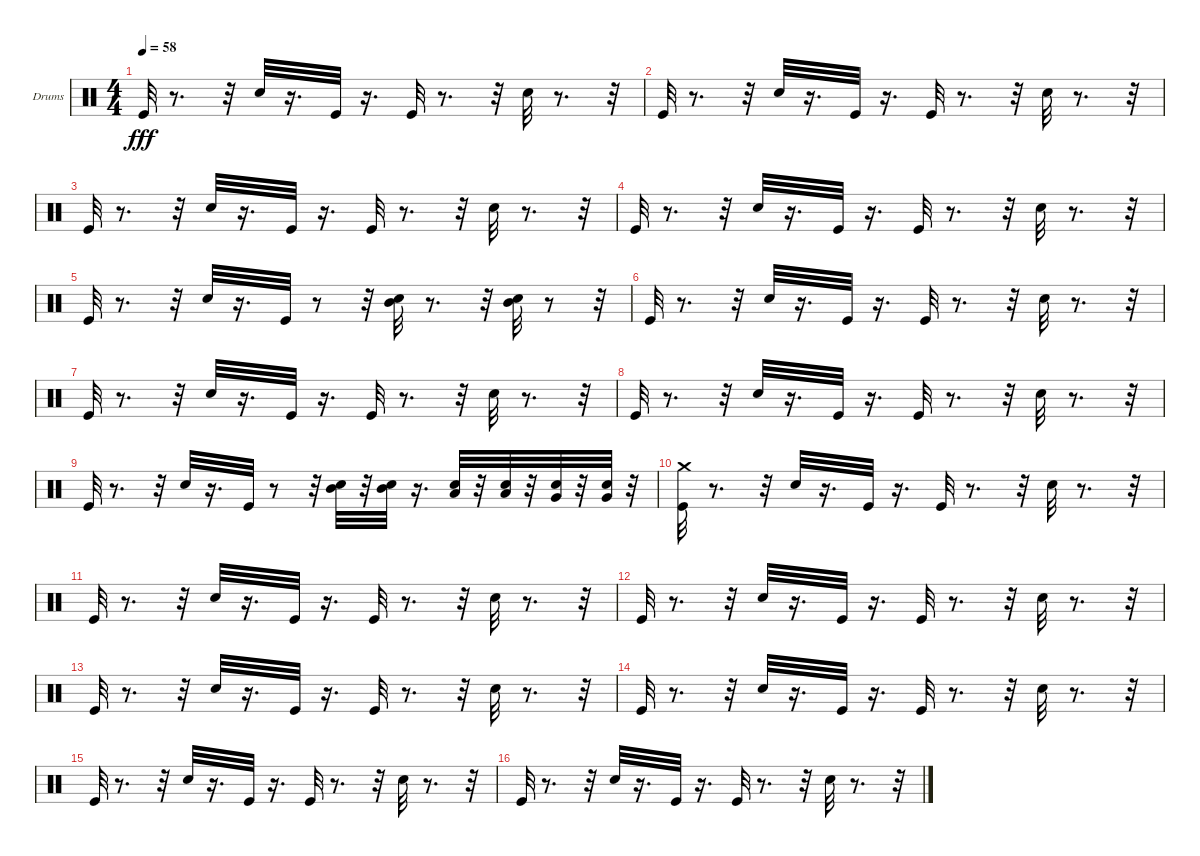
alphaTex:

\bracketExtendMode groupsimilarinstruments
\firstSystemTrackNameOrientation horizontal
\otherSystemsTrackNameOrientation horizontal
\track ("Drumkit" "Drums") {instrument percussion}
\staff {score}
\articulation defaults
\ts (4 4)
\tempo 58
\clef neutral
\ks c "Kick (hit)".32{dy fff}
r.8{d} r.32 "Snare (hit) 2".32 r.16{d} "Kick (hit)".32 r.16{d} "Kick (hit)".32 r.8{d} r.32 "Snare (hit) 2".32 r.8{d} r.32 |
"Kick (hit)".32 r.8{d} r.32 "Snare (hit) 2".32 r.16{d} "Kick (hit)".32 r.16{d} "Kick (hit)".32 r.8{d} r.32 "Snare (hit) 2".32 r.8{d} r.32 |
"Kick (hit)".32 r.8{d} r.32 "Snare (hit) 2".32 r.16{d} "Kick (hit)".32 r.16{d} "Kick (hit)".32 r.8{d} r.32 "Snare (hit) 2".32 r.8{d} r.32 |
"Kick (hit)".32 r.8{d} r.32 "Snare (hit) 2".32 r.16{d} "Kick (hit)".32 r.16{d} "Kick (hit)".32 r.8{d} r.32 "Snare (hit) 2".32 r.8{d} r.32 |
"Kick (hit)".32 r.8{d} r.32 "Snare (hit) 2".32 r.16{d} "Kick (hit)".32 r.8 r.32 ("Snare (hit) 2" "Mid Tom (hit)").32 r.8{d} r.32 ("Snare (hit) 2" "Mid Tom (hit)").32 r.8 r.32 |
"Kick (hit)".32 r.8{d} r.32 "Snare (hit) 2".32 r.16{d} "Kick (hit)".32 r.16{d} "Kick (hit)".32 r.8{d} r.32 "Snare (hit) 2".32 r.8{d} r.32 |
"Kick (hit)".32 r.8{d} r.32 "Snare (hit) 2".32 r.16{d} "Kick (hit)".32 r.16{d} "Kick (hit)".32 r.8{d} r.32 "Snare (hit) 2".32 r.8{d} r.32 |
"Kick (hit)".32 r.8{d} r.32 "Snare (hit) 2".32 r.16{d} "Kick (hit)".32 r.16{d} "Kick (hit)".32 r.8{d} r.32 "Snare (hit) 2".32 r.8{d} r.32 |
"Kick (hit)".32 r.8{d} r.32 "Snare (hit) 2".32 r.16{d} "Kick (hit)".32 r.8 r.32 ("Snare (hit) 2" "Mid Tom (hit)").32 r.32 ("Snare (hit) 2" "Mid Tom (hit)").32 r.16{d} ("Snare (hit) 2" "Low Tom (hit)").32 r.32 ("Snare (hit) 2" "Low Tom (hit)").32 r.32 ("Snare (hit) 2" "Very Low Tom (hit)").32 r.32 ("Snare (hit) 2" "Very Low Tom (hit)").32 r.32 |
("Kick (hit)" "Crash medium (hit)").32 r.8{d} r.32 "Snare (hit) 2".32 r.16{d} "Kick (hit)".32 r.16{d} "Kick (hit)".32 r.8{d} r.32 "Snare (hit) 2".32 r.8{d} r.32 |
"Kick (hit)".32 r.8{d} r.32 "Snare (hit) 2".32 r.16{d} "Kick (hit)".32 r.16{d} "Kick (hit)".32 r.8{d} r.32 "Snare (hit) 2".32 r.8{d} r.32 |
"Kick (hit)".32 r.8{d} r.32 "Snare (hit) 2".32 r.16{d} "Kick (hit)".32 r.16{d} "Kick (hit)".32 r.8{d} r.32 "Snare (hit) 2".32 r.8{d} r.32 |
"Kick (hit)".32 r.8{d} r.32 "Snare (hit) 2".32 r.16{d} "Kick (hit)".32 r.16{d} "Kick (hit)".32 r.8{d} r.32 "Snare (hit) 2".32 r.8{d} r.32 |
"Kick (hit)".32 r.8{d} r.32 "Snare (hit) 2".32 r.16{d} "Kick (hit)".32 r.16{d} "Kick (hit)".32 r.8{d} r.32 "Snare (hit) 2".32 r.8{d} r.32 |
"Kick (hit)".32 r.8{d} r.32 "Snare (hit) 2".32 r.16{d} "Kick (hit)".32 r.16{d} "Kick (hit)".32 r.8{d} r.32 "Snare (hit) 2".32 r.8{d} r.32 |
"Kick (hit)".32 r.8{d} r.32 "Snare (hit) 2".32 r.16{d} "Kick (hit)".32 r.16{d} "Kick (hit)".32 r.8{d} r.32 "Snare (hit) 2".32 r.8{d} r.32
